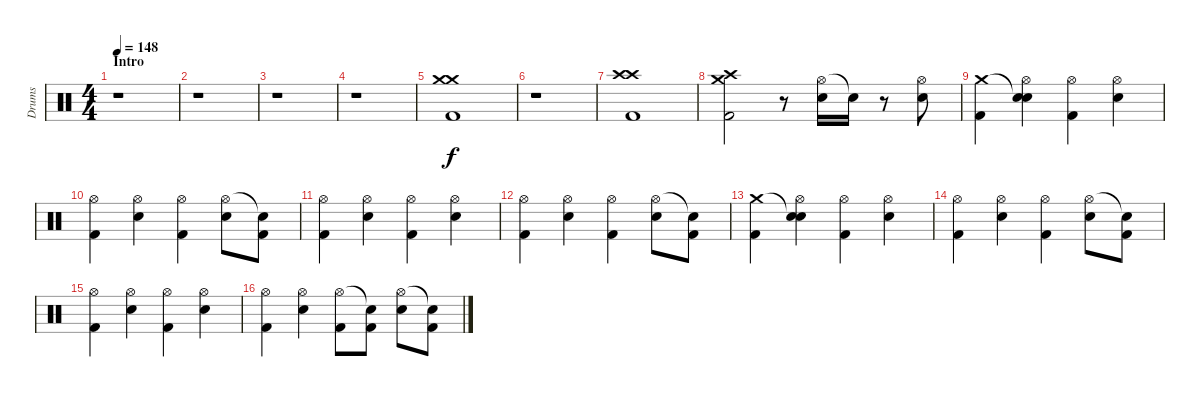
\track ("Drums" "Drums") {instrument percussion}
\staff {score}
\articulation defaults
\ts (4 4)
\section ("" "Intro")
\tempo 148
\clef neutral
\ks c
r.1{dy f} |
r.1 |
r.1 |
r.1 |
("Crash medium (hit)" "Crash medium (hit)" "Kick (hit) 2").1 |
r.1 |
("Crash high (hit)" "Crash high (hit)" "Kick (hit) 2").1 |
("Crash medium (hit)" "Crash high (hit)" "Kick (hit) 2").2 r.8 ("Hi-Hat (open)" "Electric Snare (hit)").16 "Snare (hit)"{t}.16 r.8 ("Hi-Hat (open)" "Electric Snare (hit)").8 |
("Crash medium (hit)" "Kick (hit) 2").4 ("Snare (hit)"{t} "Hi-Hat (open)" "Electric Snare (hit)").4 ("Hi-Hat (open)" "Kick (hit) 2").4 ("Hi-Hat (open)" "Electric Snare (hit)").4 |
("Hi-Hat (open)" "Kick (hit) 2").4 ("Hi-Hat (open)" "Electric Snare (hit)").4 ("Hi-Hat (open)" "Kick (hit) 2").4 ("Hi-Hat (open)" "Electric Snare (hit)").8 ("Snare (hit)"{t} "Kick (hit) 2").8 |
("Hi-Hat (open)" "Kick (hit) 2").4 ("Hi-Hat (open)" "Electric Snare (hit)").4 ("Hi-Hat (open)" "Kick (hit) 2").4 ("Hi-Hat (open)" "Electric Snare (hit)").4 |
("Hi-Hat (open)" "Kick (hit) 2").4 ("Hi-Hat (open)" "Electric Snare (hit)").4 ("Hi-Hat (open)" "Kick (hit) 2").4 ("Hi-Hat (open)" "Electric Snare (hit)").8 ("Snare (hit)"{t} "Kick (hit) 2").8 |
("Crash medium (hit)" "Kick (hit) 2").4 ("Snare (hit)"{t} "Hi-Hat (open)" "Electric Snare (hit)").4 ("Hi-Hat (open)" "Kick (hit) 2").4 ("Hi-Hat (open)" "Electric Snare (hit)").4 |
("Hi-Hat (open)" "Kick (hit) 2").4 ("Hi-Hat (open)" "Electric Snare (hit)").4 ("Hi-Hat (open)" "Kick (hit) 2").4 ("Hi-Hat (open)" "Electric Snare (hit)").8 ("Snare (hit)"{t} "Kick (hit) 2").8 |
("Hi-Hat (open)" "Kick (hit) 2").4 ("Hi-Hat (open)" "Electric Snare (hit)").4 ("Hi-Hat (open)" "Kick (hit) 2").4 ("Hi-Hat (open)" "Electric Snare (hit)").4 |
("Hi-Hat (open)" "Kick (hit) 2").4 ("Hi-Hat (open)" "Electric Snare (hit)").4 ("Hi-Hat (open)" "Kick (hit) 2").8 ("Snare (hit)"{t} "Kick (hit) 2").8 ("Hi-Hat (open)" "Electric Snare (hit)").8 ("Snare (hit)"{t} "Kick (hit) 2").8
